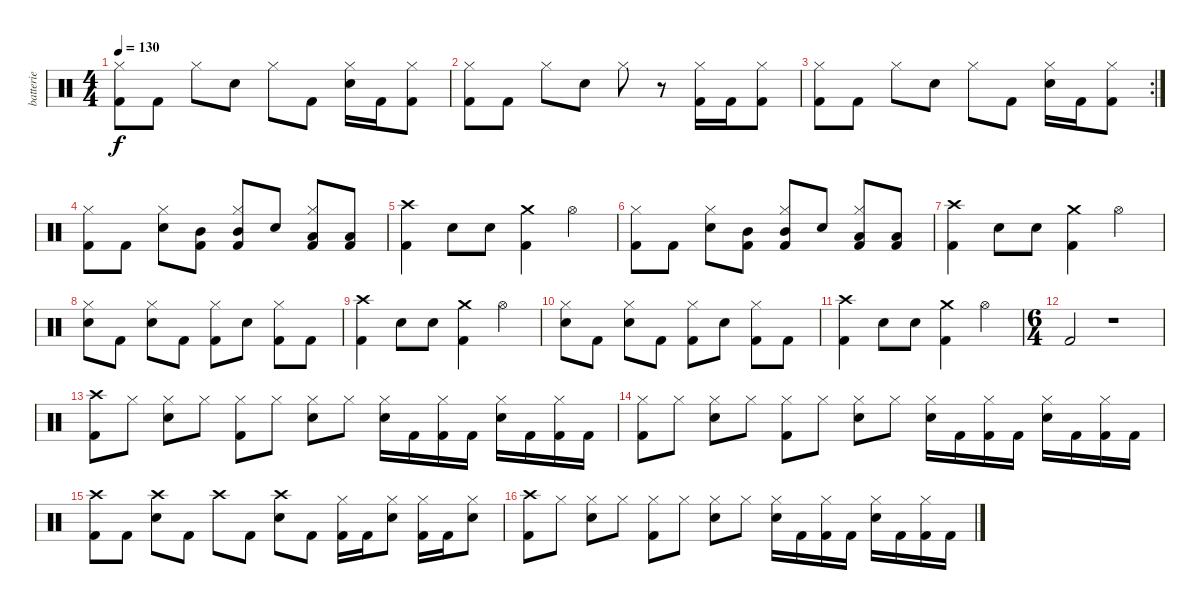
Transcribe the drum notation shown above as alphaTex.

\track ("batterie" "batterie") {instrument percussion}
\staff {score}
\articulation defaults
\ts (4 4)
\tempo 130
\clef neutral
\ks c
("Kick (hit) 2" "Hi-Hat (closed)").8{dy f} "Kick (hit) 2".8 "Hi-Hat (closed)".8 "Snare (hit) 2".8 "Hi-Hat (closed)".8 "Kick (hit) 2".8 ("Snare (hit) 2" "Hi-Hat (closed)").16 "Kick (hit) 2".16 ("Kick (hit) 2" "Hi-Hat (closed)").8 |
("Kick (hit) 2" "Hi-Hat (closed)").8 "Kick (hit) 2".8 "Hi-Hat (closed)".8 "Snare (hit) 2".8 "Hi-Hat (closed)".8 r.8 ("Kick (hit) 2" "Hi-Hat (closed)").16 "Kick (hit) 2".16 ("Kick (hit) 2" "Hi-Hat (closed)").8 |
\rc 2
("Kick (hit) 2" "Hi-Hat (closed)").8 "Kick (hit) 2".8 "Hi-Hat (closed)".8 "Snare (hit) 2".8 "Hi-Hat (closed)".8 "Kick (hit) 2".8 ("Snare (hit) 2" "Hi-Hat (closed)").16 "Kick (hit) 2".16 ("Kick (hit) 2" "Hi-Hat (closed)").8 |
("Kick (hit) 2" "Hi-Hat (closed)").8 "Kick (hit) 2".8 ("Snare (hit) 2" "Hi-Hat (closed)").8 ("Mid Tom (hit)" "Kick (hit) 2").8 ("Mid Tom (hit)" "Kick (hit) 2" "Hi-Hat (closed)").8 "Snare (hit) 2".8 ("Low Tom (hit)" "Kick (hit) 2" "Hi-Hat (closed)").8 ("Low Tom (hit)" "Kick (hit) 2").8 |
("Crash high (hit)" "Kick (hit) 2").4 "Snare (hit) 2".8 "Snare (hit) 2".8 ("Crash medium (hit)" "Kick (hit) 2").4 "Hi-Hat (open)".4 |
("Kick (hit) 2" "Hi-Hat (closed)").8 "Kick (hit) 2".8 ("Snare (hit) 2" "Hi-Hat (closed)").8 ("Mid Tom (hit)" "Kick (hit) 2").8 ("Mid Tom (hit)" "Kick (hit) 2" "Hi-Hat (closed)").8 "Snare (hit) 2".8 ("Low Tom (hit)" "Kick (hit) 2" "Hi-Hat (closed)").8 ("Low Tom (hit)" "Kick (hit) 2").8 |
("Crash high (hit)" "Kick (hit) 2").4 "Snare (hit) 2".8 "Snare (hit) 2".8 ("Crash medium (hit)" "Kick (hit) 2").4 "Hi-Hat (open)".4 |
("Snare (hit) 2" "Hi-Hat (closed)").8 "Kick (hit) 2".8 ("Snare (hit) 2" "Hi-Hat (closed)").8 "Kick (hit) 2".8 ("Kick (hit) 2" "Hi-Hat (closed)").8 "Snare (hit) 2".8 ("Kick (hit) 2" "Hi-Hat (closed)").8 "Kick (hit) 2".8 |
("Crash high (hit)" "Kick (hit) 2").4 "Snare (hit) 2".8 "Snare (hit) 2".8 ("Crash medium (hit)" "Kick (hit) 2").4 "Hi-Hat (open)".4 |
("Snare (hit) 2" "Hi-Hat (closed)").8 "Kick (hit) 2".8 ("Snare (hit) 2" "Hi-Hat (closed)").8 "Kick (hit) 2".8 ("Kick (hit) 2" "Hi-Hat (closed)").8 "Snare (hit) 2".8 ("Kick (hit) 2" "Hi-Hat (closed)").8 "Kick (hit) 2".8 |
("Crash high (hit)" "Kick (hit) 2").4 "Snare (hit) 2".8 "Snare (hit) 2".8 ("Crash medium (hit)" "Kick (hit) 2").4 "Hi-Hat (open)".4 |
\ts (6 4)
"Kick (hit) 2".2 r.1 |
("Crash high (hit)" "Kick (hit) 2").8 "Hi-Hat (closed)".8 ("Snare (hit) 2" "Hi-Hat (closed)").8 "Hi-Hat (closed)".8 ("Kick (hit) 2" "Hi-Hat (closed)").8 "Hi-Hat (closed)".8 ("Snare (hit) 2" "Hi-Hat (closed)").8 "Hi-Hat (closed)".8 ("Snare (hit) 2" "Hi-Hat (closed)").16 "Kick (hit) 2".16 ("Kick (hit) 2" "Hi-Hat (closed)").16 "Kick (hit) 2".16 ("Snare (hit) 2" "Hi-Hat (closed)").16 "Kick (hit) 2".16 ("Kick (hit) 2" "Hi-Hat (closed)").16 "Kick (hit) 2".16 |
("Kick (hit) 2" "Hi-Hat (closed)").8 "Hi-Hat (closed)".8 ("Snare (hit) 2" "Hi-Hat (closed)").8 "Hi-Hat (closed)".8 ("Kick (hit) 2" "Hi-Hat (closed)").8 "Hi-Hat (closed)".8 ("Snare (hit) 2" "Hi-Hat (closed)").8 "Hi-Hat (closed)".8 ("Snare (hit) 2" "Hi-Hat (closed)").16 "Kick (hit) 2".16 ("Kick (hit) 2" "Hi-Hat (closed)").16 "Kick (hit) 2".16 ("Snare (hit) 2" "Hi-Hat (closed)").16 "Kick (hit) 2".16 ("Kick (hit) 2" "Hi-Hat (closed)").16 "Kick (hit) 2".16 |
("Crash high (hit)" "Kick (hit) 2").8 "Kick (hit) 2".8 ("Crash high (hit)" "Snare (hit) 2").8 "Kick (hit) 2".8 "Crash high (hit)".8 "Kick (hit) 2".8 ("Crash high (hit)" "Snare (hit) 2").8 "Kick (hit) 2".8 ("Kick (hit) 2" "Hi-Hat (closed)").16 "Kick (hit) 2".16 ("Snare (hit) 2" "Hi-Hat (closed)").8 ("Kick (hit) 2" "Hi-Hat (closed)").16 "Kick (hit) 2".16 ("Snare (hit) 2" "Hi-Hat (closed)").8 |
("Crash high (hit)" "Kick (hit) 2").8 "Hi-Hat (closed)".8 ("Snare (hit) 2" "Hi-Hat (closed)").8 "Hi-Hat (closed)".8 ("Kick (hit) 2" "Hi-Hat (closed)").8 "Hi-Hat (closed)".8 ("Snare (hit) 2" "Hi-Hat (closed)").8 "Hi-Hat (closed)".8 ("Snare (hit) 2" "Hi-Hat (closed)").16 "Kick (hit) 2".16 ("Kick (hit) 2" "Hi-Hat (closed)").16 "Kick (hit) 2".16 ("Snare (hit) 2" "Hi-Hat (closed)").16 "Kick (hit) 2".16 ("Kick (hit) 2" "Hi-Hat (closed)").16 "Kick (hit) 2".16
